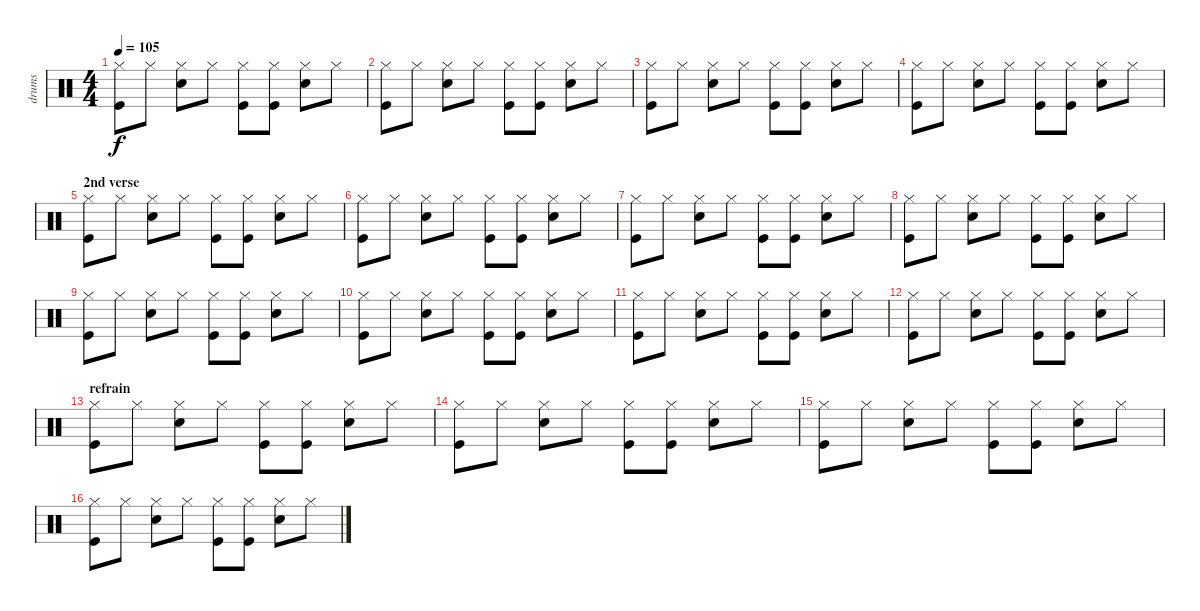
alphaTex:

\track ("drums" "drums") {instrument percussion}
\staff {score}
\articulation defaults
\ts (4 4)
\tempo 105
\clef neutral
\ks c
("Hi-Hat (closed)" "Kick (hit)").8{dy f} "Hi-Hat (closed)".8 ("Hi-Hat (closed)" "Snare (hit) 2").8 "Hi-Hat (closed)".8 ("Hi-Hat (closed)" "Kick (hit)").8 ("Hi-Hat (closed)" "Kick (hit)").8 ("Hi-Hat (closed)" "Snare (hit) 2").8 "Hi-Hat (closed)".8 |
("Hi-Hat (closed)" "Kick (hit)").8 "Hi-Hat (closed)".8 ("Hi-Hat (closed)" "Snare (hit) 2").8 "Hi-Hat (closed)".8 ("Hi-Hat (closed)" "Kick (hit)").8 ("Hi-Hat (closed)" "Kick (hit)").8 ("Hi-Hat (closed)" "Snare (hit) 2").8 "Hi-Hat (closed)".8 |
("Hi-Hat (closed)" "Kick (hit)").8 "Hi-Hat (closed)".8 ("Hi-Hat (closed)" "Snare (hit) 2").8 "Hi-Hat (closed)".8 ("Hi-Hat (closed)" "Kick (hit)").8 ("Hi-Hat (closed)" "Kick (hit)").8 ("Hi-Hat (closed)" "Snare (hit) 2").8 "Hi-Hat (closed)".8 |
("Hi-Hat (closed)" "Kick (hit)").8 "Hi-Hat (closed)".8 ("Hi-Hat (closed)" "Snare (hit) 2").8 "Hi-Hat (closed)".8 ("Hi-Hat (closed)" "Kick (hit)").8 ("Hi-Hat (closed)" "Kick (hit)").8 ("Hi-Hat (closed)" "Snare (hit) 2").8 "Hi-Hat (closed)".8 |
\section ("" "2nd verse")
("Hi-Hat (closed)" "Kick (hit)").8 "Hi-Hat (closed)".8 ("Hi-Hat (closed)" "Snare (hit) 2").8 "Hi-Hat (closed)".8 ("Hi-Hat (closed)" "Kick (hit)").8 ("Hi-Hat (closed)" "Kick (hit)").8 ("Hi-Hat (closed)" "Snare (hit) 2").8 "Hi-Hat (closed)".8 |
("Hi-Hat (closed)" "Kick (hit)").8 "Hi-Hat (closed)".8 ("Hi-Hat (closed)" "Snare (hit) 2").8 "Hi-Hat (closed)".8 ("Hi-Hat (closed)" "Kick (hit)").8 ("Hi-Hat (closed)" "Kick (hit)").8 ("Hi-Hat (closed)" "Snare (hit) 2").8 "Hi-Hat (closed)".8 |
("Hi-Hat (closed)" "Kick (hit)").8 "Hi-Hat (closed)".8 ("Hi-Hat (closed)" "Snare (hit) 2").8 "Hi-Hat (closed)".8 ("Hi-Hat (closed)" "Kick (hit)").8 ("Hi-Hat (closed)" "Kick (hit)").8 ("Hi-Hat (closed)" "Snare (hit) 2").8 "Hi-Hat (closed)".8 |
("Hi-Hat (closed)" "Kick (hit)").8 "Hi-Hat (closed)".8 ("Hi-Hat (closed)" "Snare (hit) 2").8 "Hi-Hat (closed)".8 ("Hi-Hat (closed)" "Kick (hit)").8 ("Hi-Hat (closed)" "Kick (hit)").8 ("Hi-Hat (closed)" "Snare (hit) 2").8 "Hi-Hat (closed)".8 |
("Hi-Hat (closed)" "Kick (hit)").8 "Hi-Hat (closed)".8 ("Hi-Hat (closed)" "Snare (hit) 2").8 "Hi-Hat (closed)".8 ("Hi-Hat (closed)" "Kick (hit)").8 ("Hi-Hat (closed)" "Kick (hit)").8 ("Hi-Hat (closed)" "Snare (hit) 2").8 "Hi-Hat (closed)".8 |
("Hi-Hat (closed)" "Kick (hit)").8 "Hi-Hat (closed)".8 ("Hi-Hat (closed)" "Snare (hit) 2").8 "Hi-Hat (closed)".8 ("Hi-Hat (closed)" "Kick (hit)").8 ("Hi-Hat (closed)" "Kick (hit)").8 ("Hi-Hat (closed)" "Snare (hit) 2").8 "Hi-Hat (closed)".8 |
("Hi-Hat (closed)" "Kick (hit)").8 "Hi-Hat (closed)".8 ("Hi-Hat (closed)" "Snare (hit) 2").8 "Hi-Hat (closed)".8 ("Hi-Hat (closed)" "Kick (hit)").8 ("Hi-Hat (closed)" "Kick (hit)").8 ("Hi-Hat (closed)" "Snare (hit) 2").8 "Hi-Hat (closed)".8 |
("Hi-Hat (closed)" "Kick (hit)").8 "Hi-Hat (closed)".8 ("Hi-Hat (closed)" "Snare (hit) 2").8 "Hi-Hat (closed)".8 ("Hi-Hat (closed)" "Kick (hit)").8 ("Hi-Hat (closed)" "Kick (hit)").8 ("Hi-Hat (closed)" "Snare (hit) 2").8 "Hi-Hat (closed)".8 |
\section ("" "refrain")
("Hi-Hat (closed)" "Kick (hit)").8 "Hi-Hat (closed)".8 ("Hi-Hat (closed)" "Snare (hit) 2").8 "Hi-Hat (closed)".8 ("Hi-Hat (closed)" "Kick (hit)").8 ("Hi-Hat (closed)" "Kick (hit)").8 ("Hi-Hat (closed)" "Snare (hit) 2").8 "Hi-Hat (closed)".8 |
("Hi-Hat (closed)" "Kick (hit)").8 "Hi-Hat (closed)".8 ("Hi-Hat (closed)" "Snare (hit) 2").8 "Hi-Hat (closed)".8 ("Hi-Hat (closed)" "Kick (hit)").8 ("Hi-Hat (closed)" "Kick (hit)").8 ("Hi-Hat (closed)" "Snare (hit) 2").8 "Hi-Hat (closed)".8 |
("Hi-Hat (closed)" "Kick (hit)").8 "Hi-Hat (closed)".8 ("Hi-Hat (closed)" "Snare (hit) 2").8 "Hi-Hat (closed)".8 ("Hi-Hat (closed)" "Kick (hit)").8 ("Hi-Hat (closed)" "Kick (hit)").8 ("Hi-Hat (closed)" "Snare (hit) 2").8 "Hi-Hat (closed)".8 |
("Hi-Hat (closed)" "Kick (hit)").8 "Hi-Hat (closed)".8 ("Hi-Hat (closed)" "Snare (hit) 2").8 "Hi-Hat (closed)".8 ("Hi-Hat (closed)" "Kick (hit)").8 ("Hi-Hat (closed)" "Kick (hit)").8 ("Hi-Hat (closed)" "Snare (hit) 2").8 "Hi-Hat (closed)".8
